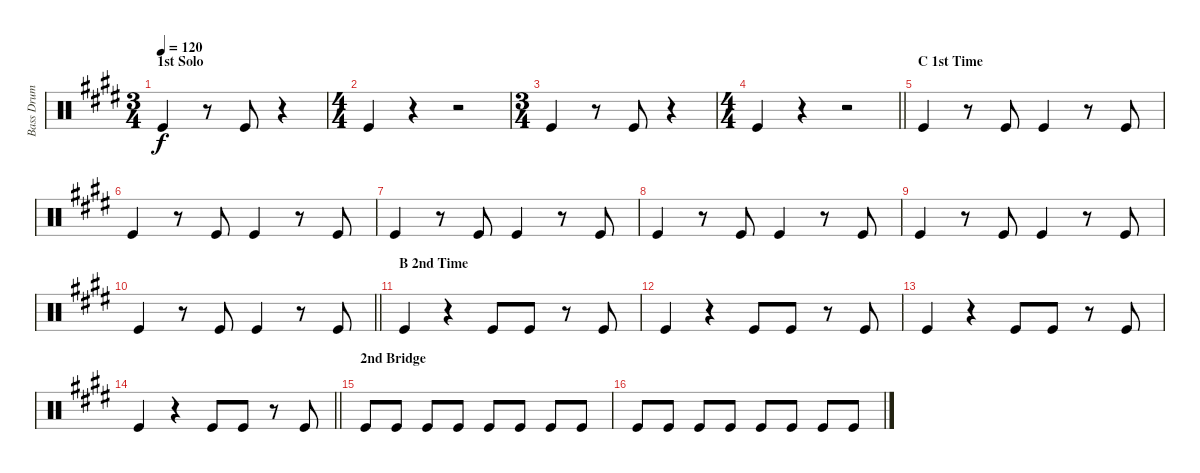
\track ("Bass Drum" "Bass Drum") {instrument percussion}
\staff {score}
\articulation defaults
\ts (3 4)
\section ("" "1st Solo")
\tempo 120
\clef neutral
\ks e "Kick (hit)".4{dy f}
r.8 "Kick (hit)".8 r.4 |
\ts (4 4)
"Kick (hit)".4 r.4 r.2 |
\ts (3 4)
"Kick (hit)".4 r.8 "Kick (hit)".8 r.4 |
\ts (4 4)
\barLineRight lightlight "Kick (hit)".4
r.4 r.2 |
\section ("" "C 1st Time")
"Kick (hit)".4 r.8 "Kick (hit)".8 "Kick (hit)".4 r.8 "Kick (hit)".8 |
"Kick (hit)".4 r.8 "Kick (hit)".8 "Kick (hit)".4 r.8 "Kick (hit)".8 |
"Kick (hit)".4 r.8 "Kick (hit)".8 "Kick (hit)".4 r.8 "Kick (hit)".8 |
"Kick (hit)".4 r.8 "Kick (hit)".8 "Kick (hit)".4 r.8 "Kick (hit)".8 |
"Kick (hit)".4 r.8 "Kick (hit)".8 "Kick (hit)".4 r.8 "Kick (hit)".8 |
\barLineRight lightlight "Kick (hit)".4
r.8 "Kick (hit)".8 "Kick (hit)".4 r.8 "Kick (hit)".8 |
\section ("" "B 2nd Time")
"Kick (hit)".4 r.4 "Kick (hit)".8 "Kick (hit)".8 r.8 "Kick (hit)".8 |
"Kick (hit)".4 r.4 "Kick (hit)".8 "Kick (hit)".8 r.8 "Kick (hit)".8 |
"Kick (hit)".4 r.4 "Kick (hit)".8 "Kick (hit)".8 r.8 "Kick (hit)".8 |
\barLineRight lightlight "Kick (hit)".4
r.4 "Kick (hit)".8 "Kick (hit)".8 r.8 "Kick (hit)".8 |
\section ("" "2nd Bridge")
"Kick (hit)".8 "Kick (hit)".8 "Kick (hit)".8 "Kick (hit)".8 "Kick (hit)".8 "Kick (hit)".8 "Kick (hit)".8 "Kick (hit)".8 |
"Kick (hit)".8 "Kick (hit)".8 "Kick (hit)".8 "Kick (hit)".8 "Kick (hit)".8 "Kick (hit)".8 "Kick (hit)".8 "Kick (hit)".8
